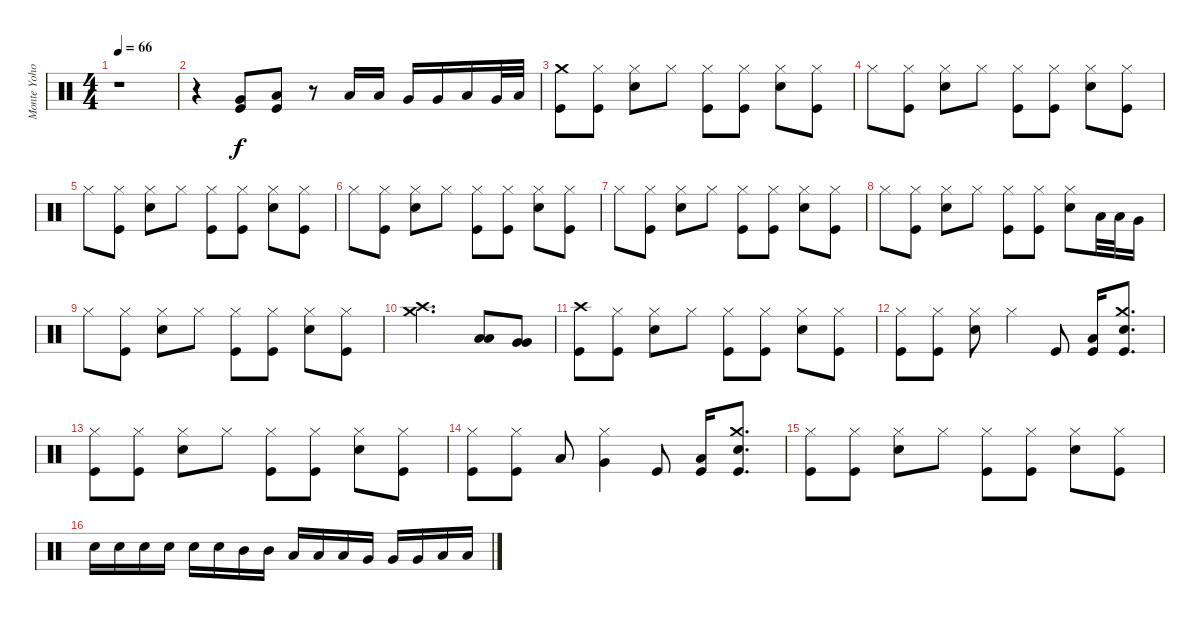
\track ("Monte Yoho Drums" "Monte Yoho") {instrument percussion}
\staff {score}
\articulation defaults
\ts (4 4)
\tempo 66
\clef neutral
\ks c
r.1{dy f} |
r.4 ("Very Low Tom (hit)" "Kick (hit)").8 ("Low Floor Tom (hit)" "Kick (hit)").8 r.8 "Low Tom (hit)".16 "Low Tom (hit)".16 "Very Low Tom (hit)".16 "Very Low Tom (hit)".16 "Low Floor Tom (hit)".16 "Very Low Tom (hit)".32 "Low Floor Tom (hit)".32 |
("Crash medium (hit)" "Kick (hit)").8 ("Hi-Hat (closed)" "Kick (hit)").8 ("Hi-Hat (closed)" "Snare (hit) 2").8 "Hi-Hat (closed)".8 ("Hi-Hat (closed)" "Kick (hit)").8 ("Hi-Hat (closed)" "Kick (hit)").8 ("Hi-Hat (closed)" "Snare (hit) 2").8 ("Hi-Hat (closed)" "Kick (hit)").8 |
"Hi-Hat (closed)".8 ("Hi-Hat (closed)" "Kick (hit)").8 ("Hi-Hat (closed)" "Snare (hit) 2").8 "Hi-Hat (closed)".8 ("Hi-Hat (closed)" "Kick (hit)").8 ("Hi-Hat (closed)" "Kick (hit)").8 ("Hi-Hat (closed)" "Snare (hit) 2").8 ("Hi-Hat (closed)" "Kick (hit)").8 |
"Hi-Hat (closed)".8 ("Hi-Hat (closed)" "Kick (hit)").8 ("Hi-Hat (closed)" "Snare (hit) 2").8 "Hi-Hat (closed)".8 ("Hi-Hat (closed)" "Kick (hit)").8 ("Hi-Hat (closed)" "Kick (hit)").8 ("Hi-Hat (closed)" "Snare (hit) 2").8 ("Hi-Hat (closed)" "Kick (hit)").8 |
"Hi-Hat (closed)".8 ("Hi-Hat (closed)" "Kick (hit)").8 ("Hi-Hat (closed)" "Snare (hit) 2").8 "Hi-Hat (closed)".8 ("Hi-Hat (closed)" "Kick (hit)").8 ("Hi-Hat (closed)" "Kick (hit)").8 ("Hi-Hat (closed)" "Snare (hit) 2").8 ("Hi-Hat (closed)" "Kick (hit)").8 |
"Hi-Hat (closed)".8 ("Hi-Hat (closed)" "Kick (hit)").8 ("Hi-Hat (closed)" "Snare (hit) 2").8 "Hi-Hat (closed)".8 ("Hi-Hat (closed)" "Kick (hit)").8 ("Hi-Hat (closed)" "Kick (hit)").8 ("Hi-Hat (closed)" "Snare (hit) 2").8 ("Hi-Hat (closed)" "Kick (hit)").8 |
"Hi-Hat (closed)".8 ("Hi-Hat (closed)" "Kick (hit)").8 ("Hi-Hat (closed)" "Snare (hit) 2").8 "Hi-Hat (closed)".8 ("Hi-Hat (closed)" "Kick (hit)").8 ("Hi-Hat (closed)" "Kick (hit)").8 ("Hi-Hat (closed)" "Snare (hit) 2").8 "Low Tom (hit)".32 "Low Tom (hit)".32 "Very Low Tom (hit)".16 |
"Hi-Hat (closed)".8 ("Hi-Hat (closed)" "Kick (hit)").8 ("Hi-Hat (closed)" "Snare (hit) 2").8 "Hi-Hat (closed)".8 ("Hi-Hat (closed)" "Kick (hit)").8 ("Hi-Hat (closed)" "Kick (hit)").8 ("Hi-Hat (closed)" "Snare (hit) 2").8 ("Hi-Hat (closed)" "Kick (hit)").8 |
("Crash medium (hit)" "Crash high (hit)").2{d} ("Low Tom (hit)" "Low Tom (hit)").8 ("Very Low Tom (hit)" "Very Low Tom (hit)").8 |
("Crash high (hit)" "Kick (hit)").8 ("Hi-Hat (closed)" "Kick (hit)").8 ("Hi-Hat (closed)" "Snare (hit) 2").8 "Hi-Hat (closed)".8 ("Hi-Hat (closed)" "Kick (hit)").8 ("Hi-Hat (closed)" "Kick (hit)").8 ("Hi-Hat (closed)" "Snare (hit) 2").8 ("Hi-Hat (closed)" "Kick (hit)").8 |
("Hi-Hat (closed)" "Kick (hit)").8 ("Hi-Hat (closed)" "Kick (hit)").8 ("Hi-Hat (closed)" "Snare (hit) 2").8 "Hi-Hat (closed)".4 "Kick (hit)".8 ("Low Tom (hit)" "Kick (hit)").16 ("Crash medium (hit)" "Snare (hit) 2" "Kick (hit)").8{d} |
("Hi-Hat (closed)" "Kick (hit)").8 ("Hi-Hat (closed)" "Kick (hit)").8 ("Hi-Hat (closed)" "Snare (hit) 2").8 "Hi-Hat (closed)".8 ("Hi-Hat (closed)" "Kick (hit)").8 ("Hi-Hat (closed)" "Kick (hit)").8 ("Hi-Hat (closed)" "Snare (hit) 2").8 ("Hi-Hat (closed)" "Kick (hit)").8 |
("Hi-Hat (closed)" "Kick (hit)").8 ("Hi-Hat (closed)" "Kick (hit)").8 "Low Tom (hit)".8 ("Hi-Hat (closed)" "Very Low Tom (hit)").4 "Kick (hit)".8 ("Low Tom (hit)" "Kick (hit)").16 ("Crash medium (hit)" "Snare (hit) 2" "Kick (hit)").8{d} |
("Hi-Hat (closed)" "Kick (hit)").8 ("Hi-Hat (closed)" "Kick (hit)").8 ("Hi-Hat (closed)" "Snare (hit) 2").8 "Hi-Hat (closed)".8 ("Hi-Hat (closed)" "Kick (hit)").8 ("Hi-Hat (closed)" "Kick (hit)").8 ("Hi-Hat (closed)" "Snare (hit) 2").8 ("Hi-Hat (closed)" "Kick (hit)").8 |
"Snare (hit) 2".16 "Snare (hit) 2".16 "Snare (hit) 2".16 "Snare (hit) 2".16 "Snare (hit) 2".16 "Snare (hit) 2".16 "Mid Tom (hit)".16 "Mid Tom (hit)".16 "Low Tom (hit)".16 "Low Tom (hit)".16 "Low Tom (hit)".16 "Very Low Tom (hit)".16 "Very Low Tom (hit)".16 "Very Low Tom (hit)".16 "Low Floor Tom (hit)".16 "Low Floor Tom (hit)".16
